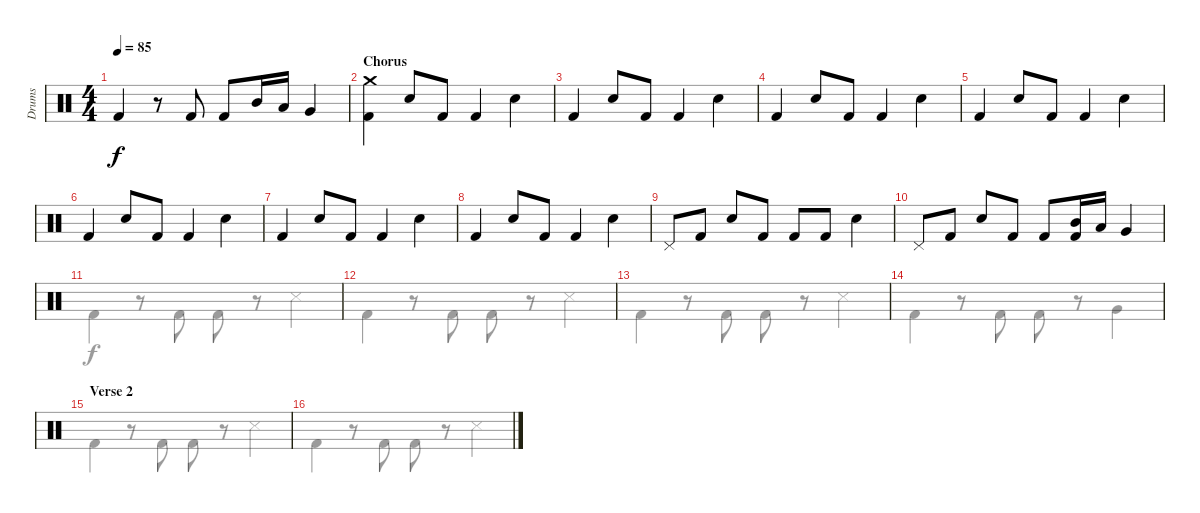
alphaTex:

\track ("Drums" "Drums") {instrument percussion}
\staff {score}
\articulation defaults
\voice
\ts (4 4)
\tempo 85
\clef neutral
\ks c "Kick (hit) 2".4{dy f}
r.8 "Kick (hit) 2".8 "Kick (hit) 2".8 "Mid Tom (hit)".16 "Low Tom (hit)".16 "Very Low Tom (hit)".4 |
\section ("" "Chorus")
("Crash medium (hit)" "Kick (hit) 2").4 "Snare (hit) 2".8 "Kick (hit) 2".8 "Kick (hit) 2".4 "Snare (hit) 2".4 |
"Kick (hit) 2".4 "Snare (hit) 2".8 "Kick (hit) 2".8 "Kick (hit) 2".4 "Snare (hit) 2".4 |
"Kick (hit) 2".4 "Snare (hit) 2".8 "Kick (hit) 2".8 "Kick (hit) 2".4 "Snare (hit) 2".4 |
"Kick (hit) 2".4 "Snare (hit) 2".8 "Kick (hit) 2".8 "Kick (hit) 2".4 "Snare (hit) 2".4 |
"Kick (hit) 2".4 "Snare (hit) 2".8 "Kick (hit) 2".8 "Kick (hit) 2".4 "Snare (hit) 2".4 |
"Kick (hit) 2".4 "Snare (hit) 2".8 "Kick (hit) 2".8 "Kick (hit) 2".4 "Snare (hit) 2".4 |
"Kick (hit) 2".4 "Snare (hit) 2".8 "Kick (hit) 2".8 "Kick (hit) 2".4 "Snare (hit) 2".4 |
"Pedal Hi-Hat (hit)".8 "Kick (hit) 2".8 "Snare (hit) 2".8 "Kick (hit) 2".8 "Kick (hit) 2".8 "Kick (hit) 2".8 "Snare (hit) 2".4 |
"Pedal Hi-Hat (hit)".8 "Kick (hit) 2".8 "Snare (hit) 2".8 "Kick (hit) 2".8 "Kick (hit) 2".8 ("Mid Tom (hit)" "Kick (hit) 2").16 "Low Tom (hit)".16 "Very Low Tom (hit)".4 |
|
|
|
|
\section ("" "Verse 2")
|
\voice
\clef neutral
\ottava regular
\simile none
\ks c
|
|
|
|
|
|
|
|
|
|
"Kick (hit) 2".4 r.8 "Kick (hit) 2".8 "Kick (hit) 2".8 r.8 "Snare (side stick) 3".4 |
"Kick (hit) 2".4 r.8 "Kick (hit) 2".8 "Kick (hit) 2".8 r.8 "Snare (side stick) 3".4 |
"Kick (hit) 2".4 r.8 "Kick (hit) 2".8 "Kick (hit) 2".8 r.8 "Snare (side stick) 3".4 |
"Kick (hit) 2".4 r.8 "Kick (hit) 2".8 "Kick (hit) 2".8 r.8 "Very Low Tom (hit)".4 |
"Kick (hit) 2".4 r.8 "Kick (hit) 2".8 "Kick (hit) 2".8 r.8 "Snare (side stick) 3".4 |
"Kick (hit) 2".4 r.8 "Kick (hit) 2".8 "Kick (hit) 2".8 r.8 "Snare (side stick) 3".4
